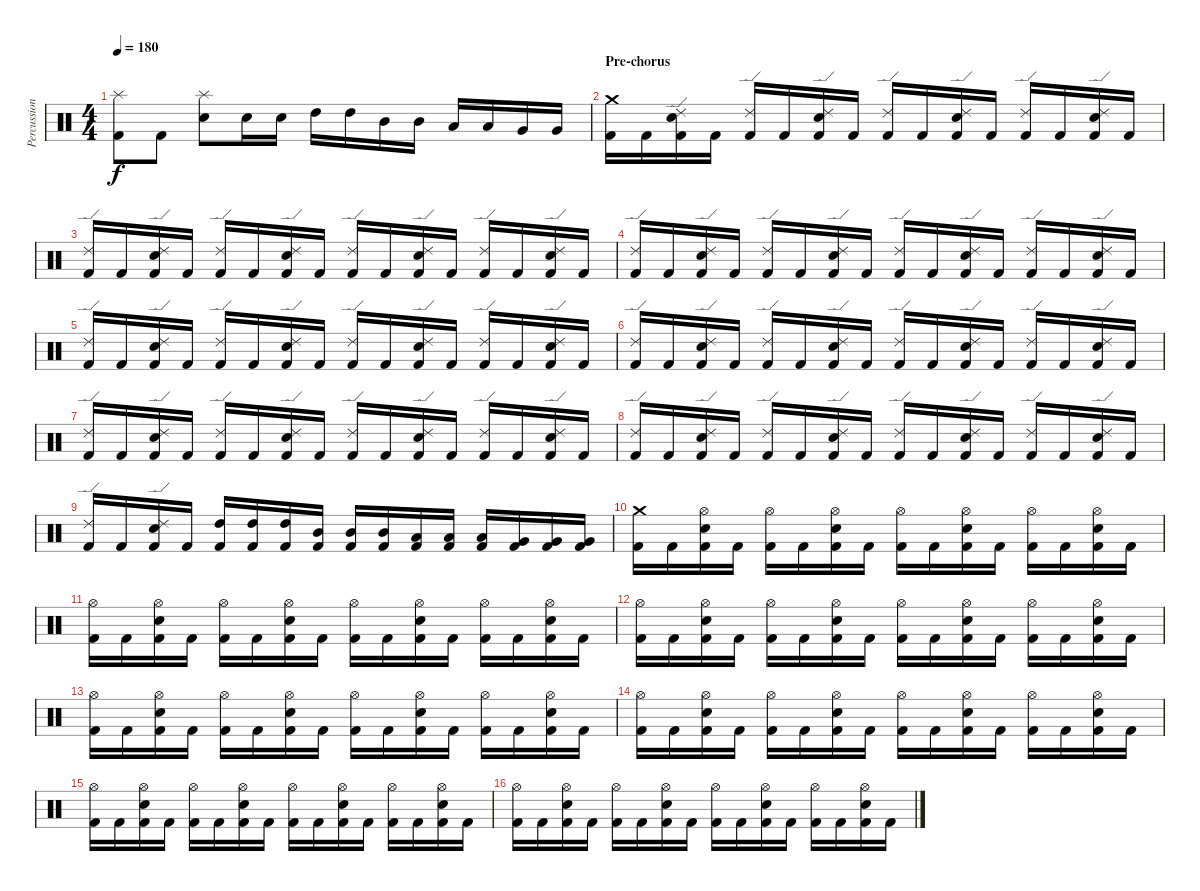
\track ("Percussion" "Percussion") {instrument percussion}
\staff {score}
\articulation defaults
\ts (4 4)
\tempo 180
\clef neutral
\ks c
("Kick (hit) 2" "Splash (hit)").8{dy f} "Kick (hit) 2".8 ("Electric Snare (hit)" "Splash (hit)").8 "Electric Snare (hit)".16 "Electric Snare (hit)".16 "High Tom (hit)".16 "High Tom (hit)".16 "Mid Tom (hit)".16 "Mid Tom (hit)".16 "Low Tom (hit)".16 "Low Tom (hit)".16 "Very Low Tom (hit)".16 "Very Low Tom (hit)".16 |
\section ("" "Pre-chorus")
("Kick (hit) 2" "Crash medium (hit)").16 "Kick (hit) 2".16 ("Kick (hit) 2" "Electric Snare (hit)" "Ride (edge) 2").16 "Kick (hit) 2".16 ("Kick (hit) 2" "Ride (edge) 2").16 "Kick (hit) 2".16 ("Kick (hit) 2" "Electric Snare (hit)" "Ride (edge) 2").16 "Kick (hit) 2".16 ("Kick (hit) 2" "Ride (edge) 2").16 "Kick (hit) 2".16 ("Kick (hit) 2" "Electric Snare (hit)" "Ride (edge) 2").16 "Kick (hit) 2".16 ("Kick (hit) 2" "Ride (edge) 2").16 "Kick (hit) 2".16 ("Kick (hit) 2" "Electric Snare (hit)" "Ride (edge) 2").16 "Kick (hit) 2".16 |
("Kick (hit) 2" "Ride (edge) 2").16 "Kick (hit) 2".16 ("Kick (hit) 2" "Electric Snare (hit)" "Ride (edge) 2").16 "Kick (hit) 2".16 ("Kick (hit) 2" "Ride (edge) 2").16 "Kick (hit) 2".16 ("Kick (hit) 2" "Electric Snare (hit)" "Ride (edge) 2").16 "Kick (hit) 2".16 ("Kick (hit) 2" "Ride (edge) 2").16 "Kick (hit) 2".16 ("Kick (hit) 2" "Electric Snare (hit)" "Ride (edge) 2").16 "Kick (hit) 2".16 ("Kick (hit) 2" "Ride (edge) 2").16 "Kick (hit) 2".16 ("Kick (hit) 2" "Electric Snare (hit)" "Ride (edge) 2").16 "Kick (hit) 2".16 |
("Kick (hit) 2" "Ride (edge) 2").16 "Kick (hit) 2".16 ("Kick (hit) 2" "Electric Snare (hit)" "Ride (edge) 2").16 "Kick (hit) 2".16 ("Kick (hit) 2" "Ride (edge) 2").16 "Kick (hit) 2".16 ("Kick (hit) 2" "Electric Snare (hit)" "Ride (edge) 2").16 "Kick (hit) 2".16 ("Kick (hit) 2" "Ride (edge) 2").16 "Kick (hit) 2".16 ("Kick (hit) 2" "Electric Snare (hit)" "Ride (edge) 2").16 "Kick (hit) 2".16 ("Kick (hit) 2" "Ride (edge) 2").16 "Kick (hit) 2".16 ("Kick (hit) 2" "Electric Snare (hit)" "Ride (edge) 2").16 "Kick (hit) 2".16 |
("Kick (hit) 2" "Ride (edge) 2").16 "Kick (hit) 2".16 ("Kick (hit) 2" "Electric Snare (hit)" "Ride (edge) 2").16 "Kick (hit) 2".16 ("Kick (hit) 2" "Ride (edge) 2").16 "Kick (hit) 2".16 ("Kick (hit) 2" "Electric Snare (hit)" "Ride (edge) 2").16 "Kick (hit) 2".16 ("Kick (hit) 2" "Ride (edge) 2").16 "Kick (hit) 2".16 ("Kick (hit) 2" "Electric Snare (hit)" "Ride (edge) 2").16 "Kick (hit) 2".16 ("Kick (hit) 2" "Ride (edge) 2").16 "Kick (hit) 2".16 ("Kick (hit) 2" "Electric Snare (hit)" "Ride (edge) 2").16 "Kick (hit) 2".16 |
("Kick (hit) 2" "Ride (edge) 2").16 "Kick (hit) 2".16 ("Kick (hit) 2" "Electric Snare (hit)" "Ride (edge) 2").16 "Kick (hit) 2".16 ("Kick (hit) 2" "Ride (edge) 2").16 "Kick (hit) 2".16 ("Kick (hit) 2" "Electric Snare (hit)" "Ride (edge) 2").16 "Kick (hit) 2".16 ("Kick (hit) 2" "Ride (edge) 2").16 "Kick (hit) 2".16 ("Kick (hit) 2" "Electric Snare (hit)" "Ride (edge) 2").16 "Kick (hit) 2".16 ("Kick (hit) 2" "Ride (edge) 2").16 "Kick (hit) 2".16 ("Kick (hit) 2" "Electric Snare (hit)" "Ride (edge) 2").16 "Kick (hit) 2".16 |
("Kick (hit) 2" "Ride (edge) 2").16 "Kick (hit) 2".16 ("Kick (hit) 2" "Electric Snare (hit)" "Ride (edge) 2").16 "Kick (hit) 2".16 ("Kick (hit) 2" "Ride (edge) 2").16 "Kick (hit) 2".16 ("Kick (hit) 2" "Electric Snare (hit)" "Ride (edge) 2").16 "Kick (hit) 2".16 ("Kick (hit) 2" "Ride (edge) 2").16 "Kick (hit) 2".16 ("Kick (hit) 2" "Electric Snare (hit)" "Ride (edge) 2").16 "Kick (hit) 2".16 ("Kick (hit) 2" "Ride (edge) 2").16 "Kick (hit) 2".16 ("Kick (hit) 2" "Electric Snare (hit)" "Ride (edge) 2").16 "Kick (hit) 2".16 |
("Kick (hit) 2" "Ride (edge) 2").16 "Kick (hit) 2".16 ("Kick (hit) 2" "Electric Snare (hit)" "Ride (edge) 2").16 "Kick (hit) 2".16 ("Kick (hit) 2" "Ride (edge) 2").16 "Kick (hit) 2".16 ("Kick (hit) 2" "Electric Snare (hit)" "Ride (edge) 2").16 "Kick (hit) 2".16 ("Kick (hit) 2" "Ride (edge) 2").16 "Kick (hit) 2".16 ("Kick (hit) 2" "Electric Snare (hit)" "Ride (edge) 2").16 "Kick (hit) 2".16 ("Kick (hit) 2" "Ride (edge) 2").16 "Kick (hit) 2".16 ("Kick (hit) 2" "Electric Snare (hit)" "Ride (edge) 2").16 "Kick (hit) 2".16 |
("Kick (hit) 2" "Ride (edge) 2").16 "Kick (hit) 2".16 ("Kick (hit) 2" "Electric Snare (hit)" "Ride (edge) 2").16 "Kick (hit) 2".16 ("Kick (hit) 2" "High Tom (hit)").16 ("Kick (hit) 2" "High Tom (hit)").16 ("Kick (hit) 2" "High Tom (hit)").16 ("Kick (hit) 2" "Mid Tom (hit)").16 ("Kick (hit) 2" "Mid Tom (hit)").16 ("Kick (hit) 2" "Mid Tom (hit)").16 ("Kick (hit) 2" "Low Tom (hit)").16 ("Kick (hit) 2" "Low Tom (hit)").16 ("Kick (hit) 2" "Low Tom (hit)").16 ("Kick (hit) 2" "Very Low Tom (hit)").16 ("Kick (hit) 2" "Very Low Tom (hit)").16 ("Kick (hit) 2" "Very Low Tom (hit)").16 |
("Kick (hit) 2" "Crash medium (hit)").16 "Kick (hit) 2".16 ("Kick (hit) 2" "Electric Snare (hit)" "Hi-Hat (open)").16 "Kick (hit) 2".16 ("Kick (hit) 2" "Hi-Hat (open)").16 "Kick (hit) 2".16 ("Kick (hit) 2" "Electric Snare (hit)" "Hi-Hat (open)").16 "Kick (hit) 2".16 ("Kick (hit) 2" "Hi-Hat (open)").16 "Kick (hit) 2".16 ("Kick (hit) 2" "Electric Snare (hit)" "Hi-Hat (open)").16 "Kick (hit) 2".16 ("Kick (hit) 2" "Hi-Hat (open)").16 "Kick (hit) 2".16 ("Kick (hit) 2" "Electric Snare (hit)" "Hi-Hat (open)").16 "Kick (hit) 2".16 |
("Kick (hit) 2" "Hi-Hat (open)").16 "Kick (hit) 2".16 ("Kick (hit) 2" "Electric Snare (hit)" "Hi-Hat (open)").16 "Kick (hit) 2".16 ("Kick (hit) 2" "Hi-Hat (open)").16 "Kick (hit) 2".16 ("Kick (hit) 2" "Electric Snare (hit)" "Hi-Hat (open)").16 "Kick (hit) 2".16 ("Kick (hit) 2" "Hi-Hat (open)").16 "Kick (hit) 2".16 ("Kick (hit) 2" "Electric Snare (hit)" "Hi-Hat (open)").16 "Kick (hit) 2".16 ("Kick (hit) 2" "Hi-Hat (open)").16 "Kick (hit) 2".16 ("Kick (hit) 2" "Electric Snare (hit)" "Hi-Hat (open)").16 "Kick (hit) 2".16 |
("Kick (hit) 2" "Hi-Hat (open)").16 "Kick (hit) 2".16 ("Kick (hit) 2" "Electric Snare (hit)" "Hi-Hat (open)").16 "Kick (hit) 2".16 ("Kick (hit) 2" "Hi-Hat (open)").16 "Kick (hit) 2".16 ("Kick (hit) 2" "Electric Snare (hit)" "Hi-Hat (open)").16 "Kick (hit) 2".16 ("Kick (hit) 2" "Hi-Hat (open)").16 "Kick (hit) 2".16 ("Kick (hit) 2" "Electric Snare (hit)" "Hi-Hat (open)").16 "Kick (hit) 2".16 ("Kick (hit) 2" "Hi-Hat (open)").16 "Kick (hit) 2".16 ("Kick (hit) 2" "Electric Snare (hit)" "Hi-Hat (open)").16 "Kick (hit) 2".16 |
("Kick (hit) 2" "Hi-Hat (open)").16 "Kick (hit) 2".16 ("Kick (hit) 2" "Electric Snare (hit)" "Hi-Hat (open)").16 "Kick (hit) 2".16 ("Kick (hit) 2" "Hi-Hat (open)").16 "Kick (hit) 2".16 ("Kick (hit) 2" "Electric Snare (hit)" "Hi-Hat (open)").16 "Kick (hit) 2".16 ("Kick (hit) 2" "Hi-Hat (open)").16 "Kick (hit) 2".16 ("Kick (hit) 2" "Electric Snare (hit)" "Hi-Hat (open)").16 "Kick (hit) 2".16 ("Kick (hit) 2" "Hi-Hat (open)").16 "Kick (hit) 2".16 ("Kick (hit) 2" "Electric Snare (hit)" "Hi-Hat (open)").16 "Kick (hit) 2".16 |
("Kick (hit) 2" "Hi-Hat (open)").16 "Kick (hit) 2".16 ("Kick (hit) 2" "Electric Snare (hit)" "Hi-Hat (open)").16 "Kick (hit) 2".16 ("Kick (hit) 2" "Hi-Hat (open)").16 "Kick (hit) 2".16 ("Kick (hit) 2" "Electric Snare (hit)" "Hi-Hat (open)").16 "Kick (hit) 2".16 ("Kick (hit) 2" "Hi-Hat (open)").16 "Kick (hit) 2".16 ("Kick (hit) 2" "Electric Snare (hit)" "Hi-Hat (open)").16 "Kick (hit) 2".16 ("Kick (hit) 2" "Hi-Hat (open)").16 "Kick (hit) 2".16 ("Kick (hit) 2" "Electric Snare (hit)" "Hi-Hat (open)").16 "Kick (hit) 2".16 |
("Kick (hit) 2" "Hi-Hat (open)").16 "Kick (hit) 2".16 ("Kick (hit) 2" "Electric Snare (hit)" "Hi-Hat (open)").16 "Kick (hit) 2".16 ("Kick (hit) 2" "Hi-Hat (open)").16 "Kick (hit) 2".16 ("Kick (hit) 2" "Electric Snare (hit)" "Hi-Hat (open)").16 "Kick (hit) 2".16 ("Kick (hit) 2" "Hi-Hat (open)").16 "Kick (hit) 2".16 ("Kick (hit) 2" "Electric Snare (hit)" "Hi-Hat (open)").16 "Kick (hit) 2".16 ("Kick (hit) 2" "Hi-Hat (open)").16 "Kick (hit) 2".16 ("Kick (hit) 2" "Electric Snare (hit)" "Hi-Hat (open)").16 "Kick (hit) 2".16 |
("Kick (hit) 2" "Hi-Hat (open)").16 "Kick (hit) 2".16 ("Kick (hit) 2" "Electric Snare (hit)" "Hi-Hat (open)").16 "Kick (hit) 2".16 ("Kick (hit) 2" "Hi-Hat (open)").16 "Kick (hit) 2".16 ("Kick (hit) 2" "Electric Snare (hit)" "Hi-Hat (open)").16 "Kick (hit) 2".16 ("Kick (hit) 2" "Hi-Hat (open)").16 "Kick (hit) 2".16 ("Kick (hit) 2" "Electric Snare (hit)" "Hi-Hat (open)").16 "Kick (hit) 2".16 ("Kick (hit) 2" "Hi-Hat (open)").16 "Kick (hit) 2".16 ("Kick (hit) 2" "Electric Snare (hit)" "Hi-Hat (open)").16 "Kick (hit) 2".16
